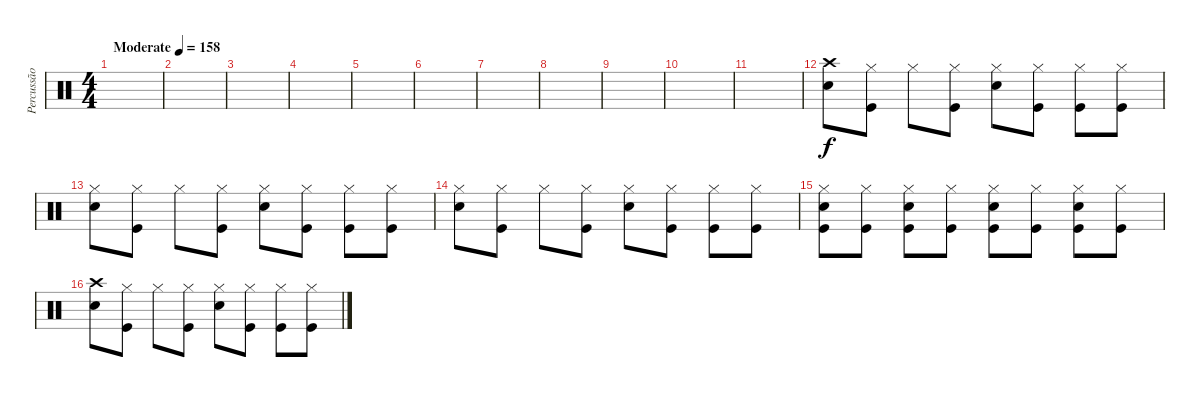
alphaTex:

\track ("Percussão" "Percussão") {instrument percussion}
\staff {score}
\articulation defaults
\ts (4 4)
\tempo (158 "Moderate")
\clef neutral
\ks c
|
|
|
|
|
|
|
|
|
|
|
("Crash high (hit)" "Electric Snare (hit)").8 ("Hi-Hat (closed)" "Kick (hit)").8 "Hi-Hat (closed)".8 ("Hi-Hat (closed)" "Kick (hit)").8 ("Hi-Hat (closed)" "Electric Snare (hit)").8 ("Hi-Hat (closed)" "Kick (hit)").8 ("Hi-Hat (closed)" "Kick (hit)").8 ("Hi-Hat (closed)" "Kick (hit)").8 |
("Hi-Hat (closed)" "Electric Snare (hit)").8 ("Hi-Hat (closed)" "Kick (hit)").8 "Hi-Hat (closed)".8 ("Hi-Hat (closed)" "Kick (hit)").8 ("Hi-Hat (closed)" "Electric Snare (hit)").8 ("Hi-Hat (closed)" "Kick (hit)").8 ("Hi-Hat (closed)" "Kick (hit)").8 ("Hi-Hat (closed)" "Kick (hit)").8 |
("Hi-Hat (closed)" "Electric Snare (hit)").8 ("Hi-Hat (closed)" "Kick (hit)").8 "Hi-Hat (closed)".8 ("Hi-Hat (closed)" "Kick (hit)").8 ("Hi-Hat (closed)" "Electric Snare (hit)").8 ("Hi-Hat (closed)" "Kick (hit)").8 ("Hi-Hat (closed)" "Kick (hit)").8 ("Hi-Hat (closed)" "Kick (hit)").8 |
("Hi-Hat (closed)" "Electric Snare (hit)" "Kick (hit)").8 ("Hi-Hat (closed)" "Kick (hit)").8 ("Hi-Hat (closed)" "Electric Snare (hit)" "Kick (hit)").8 ("Hi-Hat (closed)" "Kick (hit)").8 ("Hi-Hat (closed)" "Electric Snare (hit)" "Kick (hit)").8 ("Hi-Hat (closed)" "Kick (hit)").8 ("Hi-Hat (closed)" "Electric Snare (hit)" "Kick (hit)").8 ("Hi-Hat (closed)" "Kick (hit)").8 |
("Crash high (hit)" "Electric Snare (hit)").8 ("Hi-Hat (closed)" "Kick (hit)").8 "Hi-Hat (closed)".8 ("Hi-Hat (closed)" "Kick (hit)").8 ("Hi-Hat (closed)" "Electric Snare (hit)").8 ("Hi-Hat (closed)" "Kick (hit)").8 ("Hi-Hat (closed)" "Kick (hit)").8 ("Hi-Hat (closed)" "Kick (hit)").8
